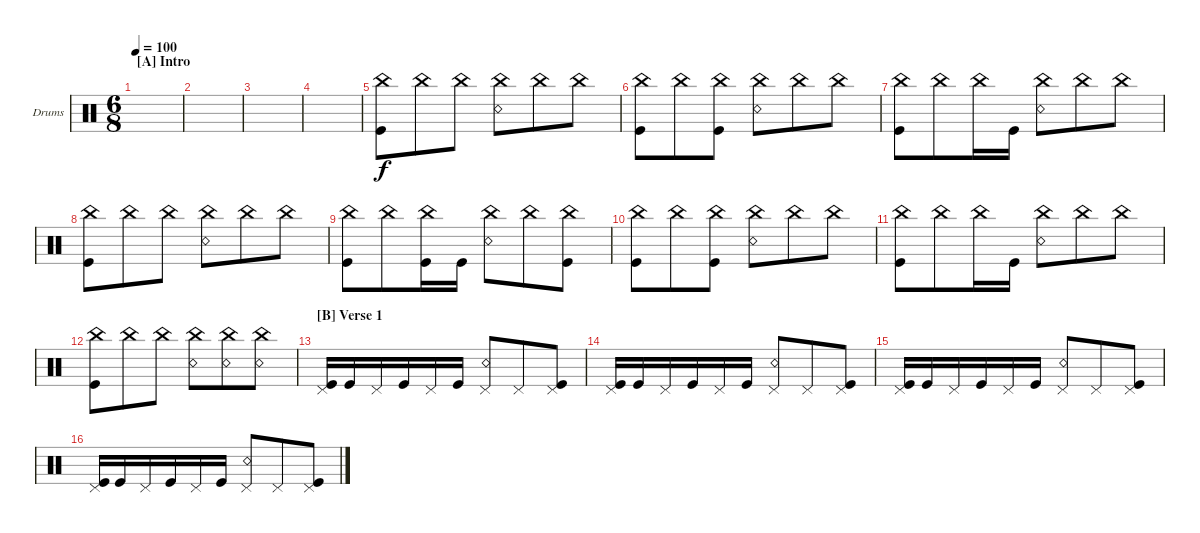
\defaultSystemsLayout 4
\bracketExtendMode groupsimilarinstruments
\firstSystemTrackNameOrientation horizontal
\otherSystemsTrackNameOrientation horizontal
\track ("Drumkit" "Drums") {instrument percussion}
\staff {score}
\articulation defaults
\ts (6 8)
\section ("A" "Intro")
\tempo 100
\clef neutral
\ks aminor
|
|
|
|
("Kick (hit)" "China (hit)").8 "China (hit)".8 "China (hit)".8 ("Snare (rim shot)" "China (hit)").8 "China (hit)".8 "China (hit)".8 |
("Kick (hit)" "China (hit)").8 "China (hit)".8 ("China (hit)" "Kick (hit)").8 ("Snare (rim shot)" "China (hit)").8 "China (hit)".8 "China (hit)".8 |
("Kick (hit)" "China (hit)").8 "China (hit)".8 "China (hit)".16 "Kick (hit)".16 ("Snare (rim shot)" "China (hit)").8 "China (hit)".8 "China (hit)".8 |
("Kick (hit)" "China (hit)").8 "China (hit)".8 "China (hit)".8 ("Snare (rim shot)" "China (hit)").8 "China (hit)".8 "China (hit)".8 |
("Kick (hit)" "China (hit)").8 "China (hit)".8 ("China (hit)" "Kick (hit)").16 "Kick (hit)".16 ("Snare (rim shot)" "China (hit)").8 "China (hit)".8 ("China (hit)" "Kick (hit)").8 |
("Kick (hit)" "China (hit)").8 "China (hit)".8 ("China (hit)" "Kick (hit)").8 ("Snare (rim shot)" "China (hit)").8 "China (hit)".8 "China (hit)".8 |
("Kick (hit)" "China (hit)").8 "China (hit)".8 "China (hit)".16 "Kick (hit)".16 ("Snare (rim shot)" "China (hit)").8 "China (hit)".8 "China (hit)".8 |
("Kick (hit)" "China (hit)").8 "China (hit)".8 "China (hit)".8 ("Snare (rim shot)" "China (hit)").8 ("China (hit)" "Snare (rim shot)").8 ("China (hit)" "Snare (rim shot)").8 |
\section ("B" "Verse 1")
("Pedal Hi-Hat (hit)" "Kick (hit)").16 "Kick (hit)".16 "Pedal Hi-Hat (hit)".16 "Kick (hit)".16 "Pedal Hi-Hat (hit)".16 "Kick (hit)".16 ("Pedal Hi-Hat (hit)" "Snare (rim shot)").8 "Pedal Hi-Hat (hit)".8 ("Pedal Hi-Hat (hit)" "Kick (hit)").8 |
("Pedal Hi-Hat (hit)" "Kick (hit)").16 "Kick (hit)".16 "Pedal Hi-Hat (hit)".16 "Kick (hit)".16 "Pedal Hi-Hat (hit)".16 "Kick (hit)".16 ("Pedal Hi-Hat (hit)" "Snare (rim shot)").8 "Pedal Hi-Hat (hit)".8 ("Pedal Hi-Hat (hit)" "Kick (hit)").8 |
("Pedal Hi-Hat (hit)" "Kick (hit)").16 "Kick (hit)".16 "Pedal Hi-Hat (hit)".16 "Kick (hit)".16 "Pedal Hi-Hat (hit)".16 "Kick (hit)".16 ("Pedal Hi-Hat (hit)" "Snare (rim shot)").8 "Pedal Hi-Hat (hit)".8 ("Pedal Hi-Hat (hit)" "Kick (hit)").8 |
("Pedal Hi-Hat (hit)" "Kick (hit)").16 "Kick (hit)".16 "Pedal Hi-Hat (hit)".16 "Kick (hit)".16 "Pedal Hi-Hat (hit)".16 "Kick (hit)".16 ("Pedal Hi-Hat (hit)" "Snare (rim shot)").8 "Pedal Hi-Hat (hit)".8 ("Pedal Hi-Hat (hit)" "Kick (hit)").8
